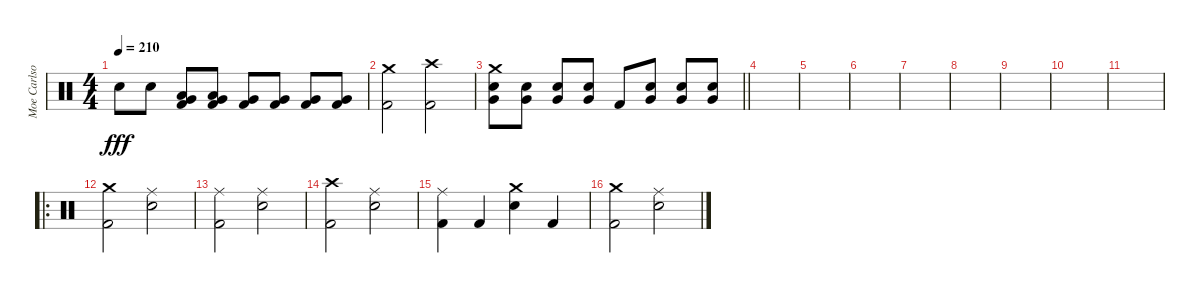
\track ("Moe Carlson" "Moe Carlso") {instrument percussion}
\staff {score}
\articulation defaults
\ts (4 4)
\tempo 210
\clef neutral
\ks c "Electric Snare (hit)".8{dy fff} "Electric Snare (hit)".8
("Low Tom (hit)" "Very Low Tom (hit)" "Kick (hit) 2").8 ("Low Tom (hit)" "Very Low Tom (hit)" "Kick (hit) 2").8 ("Very Low Tom (hit)" "Kick (hit) 2").8 ("Very Low Tom (hit)" "Kick (hit) 2").8 ("Very Low Tom (hit)" "Kick (hit) 2").8 ("Very Low Tom (hit)" "Kick (hit) 2").8 |
("Crash medium (hit)" "Kick (hit) 2").2 ("Crash high (hit)" "Kick (hit) 2").2 |
\barLineRight lightlight
("Crash medium (hit)" "Electric Snare (hit)" "Very Low Tom (hit)").8 ("Electric Snare (hit)" "Very Low Tom (hit)").8 ("Electric Snare (hit)" "Very Low Tom (hit)").8 ("Electric Snare (hit)" "Very Low Tom (hit)").8 "Kick (hit) 2".8 ("Electric Snare (hit)" "Very Low Tom (hit)").8 ("Electric Snare (hit)" "Very Low Tom (hit)").8 ("Electric Snare (hit)" "Very Low Tom (hit)").8 |
|
|
|
|
|
|
|
|
\ro
("Crash medium (hit)" "Kick (hit) 2").2 ("Ride (middle)" "Electric Snare (hit)").2 |
("Ride (middle)" "Kick (hit) 2").2 ("Ride (middle)" "Electric Snare (hit)").2 |
("Crash high (hit)" "Kick (hit) 2").2 ("Ride (middle)" "Electric Snare (hit)").2 |
("Ride (middle)" "Kick (hit) 2").4 "Kick (hit) 2".4 ("Crash medium (hit)" "Electric Snare (hit)").4 "Kick (hit) 2".4 |
("Crash medium (hit)" "Kick (hit) 2").2 ("Ride (middle)" "Electric Snare (hit)").2
